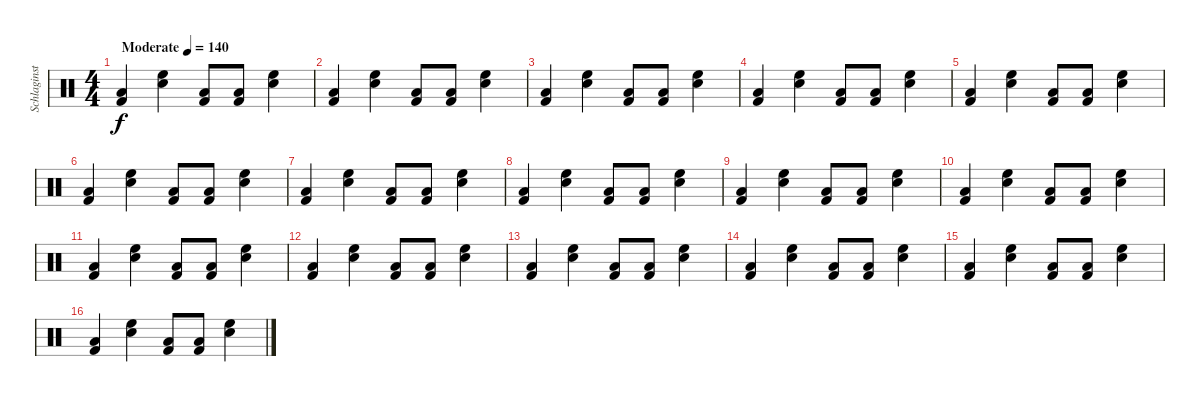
\track ("Schlaginstrumente - Auswahl" "Schlaginst") {instrument percussion}
\staff {score}
\articulation defaults
\ts (4 4)
\tempo (140 "Moderate")
\clef neutral
\ks c
("Low Tom (hit)" "Kick (hit) 2").4{dy f} ("Snare (hit) 2" "High Floor Tom (hit)").4 ("Low Tom (hit)" "Kick (hit) 2").8 ("Low Tom (hit)" "Kick (hit) 2").8 ("Snare (hit) 2" "High Floor Tom (hit)").4 |
("Low Tom (hit)" "Kick (hit) 2").4 ("Snare (hit) 2" "High Floor Tom (hit)").4 ("Low Tom (hit)" "Kick (hit) 2").8 ("Low Tom (hit)" "Kick (hit) 2").8 ("Snare (hit) 2" "High Floor Tom (hit)").4 |
("Low Tom (hit)" "Kick (hit) 2").4 ("Snare (hit) 2" "High Floor Tom (hit)").4 ("Low Tom (hit)" "Kick (hit) 2").8 ("Low Tom (hit)" "Kick (hit) 2").8 ("Snare (hit) 2" "High Floor Tom (hit)").4 |
("Low Tom (hit)" "Kick (hit) 2").4 ("Snare (hit) 2" "High Floor Tom (hit)").4 ("Low Tom (hit)" "Kick (hit) 2").8 ("Low Tom (hit)" "Kick (hit) 2").8 ("Snare (hit) 2" "High Floor Tom (hit)").4 |
("Low Tom (hit)" "Kick (hit) 2").4 ("Snare (hit) 2" "High Floor Tom (hit)").4 ("Low Tom (hit)" "Kick (hit) 2").8 ("Low Tom (hit)" "Kick (hit) 2").8 ("Snare (hit) 2" "High Floor Tom (hit)").4 |
("Low Tom (hit)" "Kick (hit) 2").4 ("Snare (hit) 2" "High Floor Tom (hit)").4 ("Low Tom (hit)" "Kick (hit) 2").8 ("Low Tom (hit)" "Kick (hit) 2").8 ("Snare (hit) 2" "High Floor Tom (hit)").4 |
("Low Tom (hit)" "Kick (hit) 2").4 ("Snare (hit) 2" "High Floor Tom (hit)").4 ("Low Tom (hit)" "Kick (hit) 2").8 ("Low Tom (hit)" "Kick (hit) 2").8 ("Snare (hit) 2" "High Floor Tom (hit)").4 |
("Low Tom (hit)" "Kick (hit) 2").4 ("Snare (hit) 2" "High Floor Tom (hit)").4 ("Low Tom (hit)" "Kick (hit) 2").8 ("Low Tom (hit)" "Kick (hit) 2").8 ("Snare (hit) 2" "High Floor Tom (hit)").4 |
("Low Tom (hit)" "Kick (hit) 2").4 ("Snare (hit) 2" "High Floor Tom (hit)").4 ("Low Tom (hit)" "Kick (hit) 2").8 ("Low Tom (hit)" "Kick (hit) 2").8 ("Snare (hit) 2" "High Floor Tom (hit)").4 |
("Low Tom (hit)" "Kick (hit) 2").4 ("Snare (hit) 2" "High Floor Tom (hit)").4 ("Low Tom (hit)" "Kick (hit) 2").8 ("Low Tom (hit)" "Kick (hit) 2").8 ("Snare (hit) 2" "High Floor Tom (hit)").4 |
("Low Tom (hit)" "Kick (hit) 2").4 ("Snare (hit) 2" "High Floor Tom (hit)").4 ("Low Tom (hit)" "Kick (hit) 2").8 ("Low Tom (hit)" "Kick (hit) 2").8 ("Snare (hit) 2" "High Floor Tom (hit)").4 |
("Low Tom (hit)" "Kick (hit) 2").4 ("Snare (hit) 2" "High Floor Tom (hit)").4 ("Low Tom (hit)" "Kick (hit) 2").8 ("Low Tom (hit)" "Kick (hit) 2").8 ("Snare (hit) 2" "High Floor Tom (hit)").4 |
("Low Tom (hit)" "Kick (hit) 2").4 ("Snare (hit) 2" "High Floor Tom (hit)").4 ("Low Tom (hit)" "Kick (hit) 2").8 ("Low Tom (hit)" "Kick (hit) 2").8 ("Snare (hit) 2" "High Floor Tom (hit)").4 |
("Low Tom (hit)" "Kick (hit) 2").4 ("Snare (hit) 2" "High Floor Tom (hit)").4 ("Low Tom (hit)" "Kick (hit) 2").8 ("Low Tom (hit)" "Kick (hit) 2").8 ("Snare (hit) 2" "High Floor Tom (hit)").4 |
("Low Tom (hit)" "Kick (hit) 2").4 ("Snare (hit) 2" "High Floor Tom (hit)").4 ("Low Tom (hit)" "Kick (hit) 2").8 ("Low Tom (hit)" "Kick (hit) 2").8 ("Snare (hit) 2" "High Floor Tom (hit)").4 |
("Low Tom (hit)" "Kick (hit) 2").4 ("Snare (hit) 2" "High Floor Tom (hit)").4 ("Low Tom (hit)" "Kick (hit) 2").8 ("Low Tom (hit)" "Kick (hit) 2").8 ("Snare (hit) 2" "High Floor Tom (hit)").4
